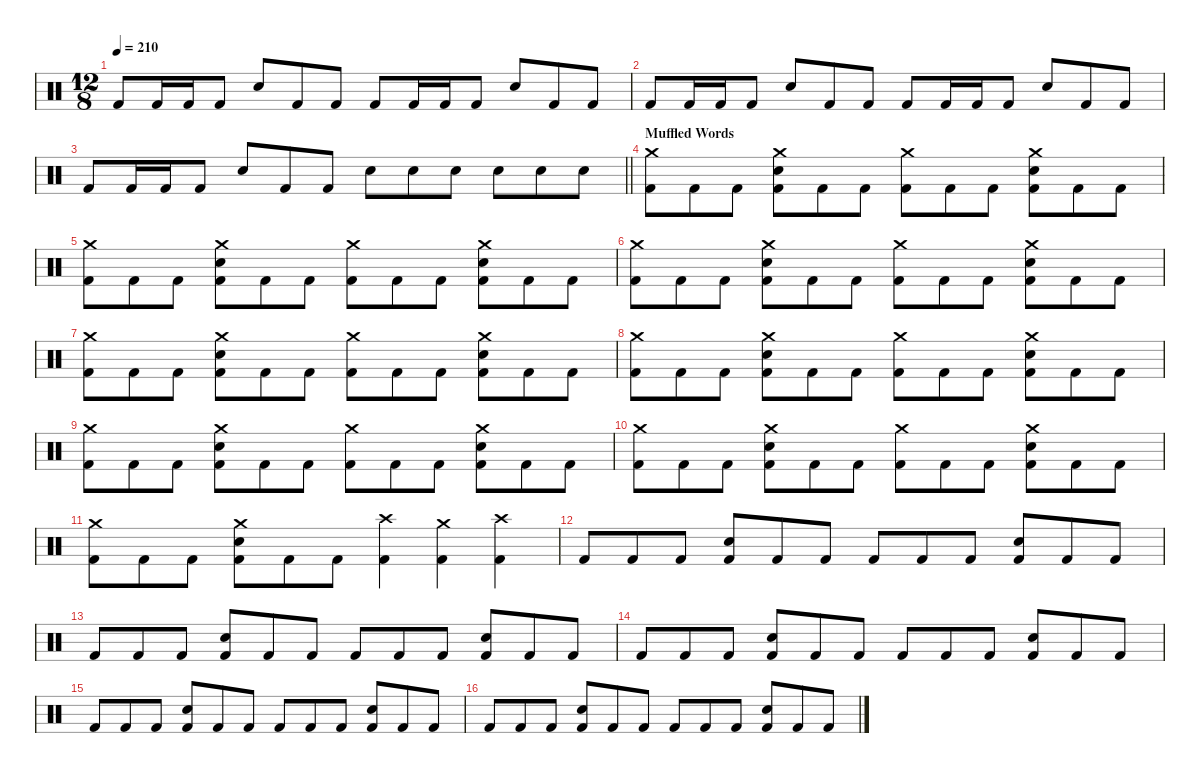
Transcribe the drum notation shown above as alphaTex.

\defaultSystemsLayout 4
\hideDynamics
\bracketExtendMode nobrackets
\singleTrackTrackNamePolicy hidden
\multiTrackTrackNamePolicy hidden
\firstSystemTrackNameMode fullname
\firstSystemTrackNameOrientation horizontal
\otherSystemsTrackNameOrientation horizontal
\track ("Beats" "drm.") {instrument percussion}
\staff {score}
\articulation defaults
\ts (12 8)
\tempo 210
\clef neutral
\ks c "Kick (hit) 2".8{dy f} "Kick (hit) 2".16 "Kick (hit) 2".16 "Kick (hit) 2".8 "Snare (hit) 2".8 "Kick (hit) 2".8 "Kick (hit) 2".8 "Kick (hit) 2".8 "Kick (hit) 2".16 "Kick (hit) 2".16 "Kick (hit) 2".8 "Snare (hit) 2".8 "Kick (hit) 2".8 "Kick (hit) 2".8
|
"Kick (hit) 2".8 "Kick (hit) 2".16 "Kick (hit) 2".16 "Kick (hit) 2".8 "Snare (hit) 2".8 "Kick (hit) 2".8 "Kick (hit) 2".8 "Kick (hit) 2".8 "Kick (hit) 2".16 "Kick (hit) 2".16 "Kick (hit) 2".8 "Snare (hit) 2".8 "Kick (hit) 2".8 "Kick (hit) 2".8 |
\barLineRight lightlight "Kick (hit) 2".8 "Kick (hit) 2".16 "Kick (hit) 2".16 "Kick (hit) 2".8 "Snare (hit) 2".8 "Kick (hit) 2".8 "Kick (hit) 2".8 "Snare (hit) 2".8 "Snare (hit) 2".8 "Snare (hit) 2".8 "Snare (hit) 2".8 "Snare (hit) 2".8 "Snare (hit) 2".8
|
\section ("" "Muffled Words")
("Crash medium (hit)" "Kick (hit) 2").8 "Kick (hit) 2".8 "Kick (hit) 2".8 ("Crash medium (hit)" "Snare (hit) 2" "Kick (hit) 2").8 "Kick (hit) 2".8 "Kick (hit) 2".8 ("Crash medium (hit)" "Kick (hit) 2").8 "Kick (hit) 2".8 "Kick (hit) 2".8 ("Crash medium (hit)" "Snare (hit) 2" "Kick (hit) 2").8 "Kick (hit) 2".8 "Kick (hit) 2".8 |
("Crash medium (hit)" "Kick (hit) 2").8 "Kick (hit) 2".8 "Kick (hit) 2".8 ("Crash medium (hit)" "Snare (hit) 2" "Kick (hit) 2").8 "Kick (hit) 2".8 "Kick (hit) 2".8 ("Crash medium (hit)" "Kick (hit) 2").8 "Kick (hit) 2".8 "Kick (hit) 2".8 ("Crash medium (hit)" "Snare (hit) 2" "Kick (hit) 2").8 "Kick (hit) 2".8 "Kick (hit) 2".8 |
("Crash medium (hit)" "Kick (hit) 2").8 "Kick (hit) 2".8 "Kick (hit) 2".8 ("Crash medium (hit)" "Snare (hit) 2" "Kick (hit) 2").8 "Kick (hit) 2".8 "Kick (hit) 2".8 ("Crash medium (hit)" "Kick (hit) 2").8 "Kick (hit) 2".8 "Kick (hit) 2".8 ("Crash medium (hit)" "Snare (hit) 2" "Kick (hit) 2").8 "Kick (hit) 2".8 "Kick (hit) 2".8 |
("Crash medium (hit)" "Kick (hit) 2").8 "Kick (hit) 2".8 "Kick (hit) 2".8 ("Crash medium (hit)" "Snare (hit) 2" "Kick (hit) 2").8 "Kick (hit) 2".8 "Kick (hit) 2".8 ("Crash medium (hit)" "Kick (hit) 2").8 "Kick (hit) 2".8 "Kick (hit) 2".8 ("Crash medium (hit)" "Snare (hit) 2" "Kick (hit) 2").8 "Kick (hit) 2".8 "Kick (hit) 2".8 |
("Crash medium (hit)" "Kick (hit) 2").8 "Kick (hit) 2".8 "Kick (hit) 2".8 ("Crash medium (hit)" "Snare (hit) 2" "Kick (hit) 2").8 "Kick (hit) 2".8 "Kick (hit) 2".8 ("Crash medium (hit)" "Kick (hit) 2").8 "Kick (hit) 2".8 "Kick (hit) 2".8 ("Crash medium (hit)" "Snare (hit) 2" "Kick (hit) 2").8 "Kick (hit) 2".8 "Kick (hit) 2".8 |
("Crash medium (hit)" "Kick (hit) 2").8 "Kick (hit) 2".8 "Kick (hit) 2".8 ("Crash medium (hit)" "Snare (hit) 2" "Kick (hit) 2").8 "Kick (hit) 2".8 "Kick (hit) 2".8 ("Crash medium (hit)" "Kick (hit) 2").8 "Kick (hit) 2".8 "Kick (hit) 2".8 ("Crash medium (hit)" "Snare (hit) 2" "Kick (hit) 2").8 "Kick (hit) 2".8 "Kick (hit) 2".8 |
("Crash medium (hit)" "Kick (hit) 2").8 "Kick (hit) 2".8 "Kick (hit) 2".8 ("Crash medium (hit)" "Snare (hit) 2" "Kick (hit) 2").8 "Kick (hit) 2".8 "Kick (hit) 2".8 ("Crash medium (hit)" "Kick (hit) 2").8 "Kick (hit) 2".8 "Kick (hit) 2".8 ("Crash medium (hit)" "Snare (hit) 2" "Kick (hit) 2").8 "Kick (hit) 2".8 "Kick (hit) 2".8 |
("Crash medium (hit)" "Kick (hit) 2").8 "Kick (hit) 2".8 "Kick (hit) 2".8 ("Crash medium (hit)" "Snare (hit) 2" "Kick (hit) 2").8 "Kick (hit) 2".8 "Kick (hit) 2".8 ("Crash high (hit)" "Kick (hit) 2").4{dy fff} ("Crash medium (hit)" "Kick (hit) 2").4 ("Crash high (hit)" "Kick (hit) 2").4 |
"Kick (hit) 2".8{dy f} "Kick (hit) 2".8 "Kick (hit) 2".8 ("Snare (hit) 2" "Kick (hit) 2").8{dy ff} "Kick (hit) 2".8{dy f} "Kick (hit) 2".8 "Kick (hit) 2".8 "Kick (hit) 2".8 "Kick (hit) 2".8 ("Snare (hit) 2" "Kick (hit) 2").8{dy ff} "Kick (hit) 2".8{dy f} "Kick (hit) 2".8 |
"Kick (hit) 2".8 "Kick (hit) 2".8 "Kick (hit) 2".8 ("Snare (hit) 2" "Kick (hit) 2").8{dy ff} "Kick (hit) 2".8{dy f} "Kick (hit) 2".8 "Kick (hit) 2".8 "Kick (hit) 2".8 "Kick (hit) 2".8 ("Snare (hit) 2" "Kick (hit) 2").8{dy ff} "Kick (hit) 2".8{dy f} "Kick (hit) 2".8 |
"Kick (hit) 2".8 "Kick (hit) 2".8 "Kick (hit) 2".8 ("Snare (hit) 2" "Kick (hit) 2").8{dy ff} "Kick (hit) 2".8{dy f} "Kick (hit) 2".8 "Kick (hit) 2".8 "Kick (hit) 2".8 "Kick (hit) 2".8 ("Snare (hit) 2" "Kick (hit) 2").8{dy ff} "Kick (hit) 2".8{dy f} "Kick (hit) 2".8 |
"Kick (hit) 2".8 "Kick (hit) 2".8 "Kick (hit) 2".8 ("Snare (hit) 2" "Kick (hit) 2").8{dy ff} "Kick (hit) 2".8{dy f} "Kick (hit) 2".8 "Kick (hit) 2".8 "Kick (hit) 2".8 "Kick (hit) 2".8 ("Snare (hit) 2" "Kick (hit) 2").8{dy ff} "Kick (hit) 2".8{dy f} "Kick (hit) 2".8 |
"Kick (hit) 2".8 "Kick (hit) 2".8 "Kick (hit) 2".8 ("Snare (hit) 2" "Kick (hit) 2").8{dy ff} "Kick (hit) 2".8{dy f} "Kick (hit) 2".8 "Kick (hit) 2".8 "Kick (hit) 2".8 "Kick (hit) 2".8 ("Snare (hit) 2" "Kick (hit) 2").8{dy ff} "Kick (hit) 2".8{dy f} "Kick (hit) 2".8
